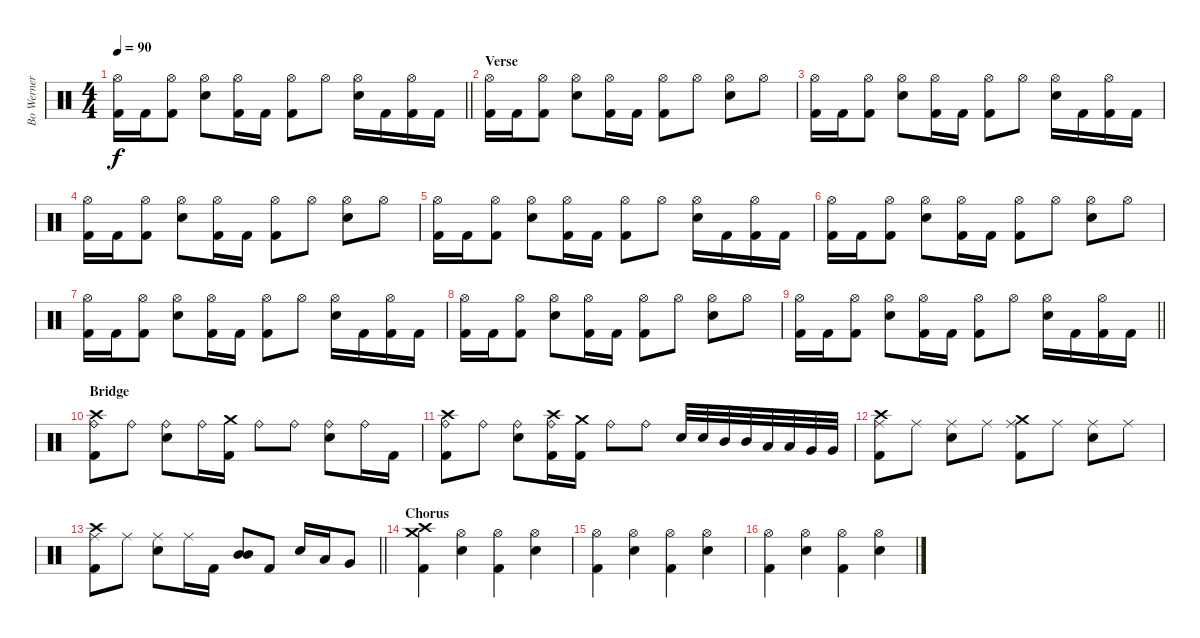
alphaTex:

\track ("Bo Werner" "Bo Werner") {instrument percussion}
\staff {score}
\articulation defaults
\ts (4 4)
\tempo 90
\clef neutral
\barLineRight lightlight
\ks c
("Hi-Hat (open)" "Kick (hit) 2").16{dy f} "Kick (hit) 2".16 ("Hi-Hat (open)" "Kick (hit) 2").8 ("Hi-Hat (open)" "Snare (hit) 2").8 ("Hi-Hat (open)" "Kick (hit) 2").16 "Kick (hit) 2".16 ("Hi-Hat (open)" "Kick (hit) 2").8 "Hi-Hat (open)".8 ("Hi-Hat (open)" "Snare (hit) 2").16 "Kick (hit) 2".16 ("Hi-Hat (open)" "Kick (hit) 2").16 "Kick (hit) 2".16 |
\section ("" "Verse")
("Hi-Hat (open)" "Kick (hit) 2").16 "Kick (hit) 2".16 ("Hi-Hat (open)" "Kick (hit) 2").8 ("Hi-Hat (open)" "Snare (hit) 2").8 ("Hi-Hat (open)" "Kick (hit) 2").16 "Kick (hit) 2".16 ("Hi-Hat (open)" "Kick (hit) 2").8 "Hi-Hat (open)".8 ("Hi-Hat (open)" "Snare (hit) 2").8 "Hi-Hat (open)".8 |
("Hi-Hat (open)" "Kick (hit) 2").16 "Kick (hit) 2".16 ("Hi-Hat (open)" "Kick (hit) 2").8 ("Hi-Hat (open)" "Snare (hit) 2").8 ("Hi-Hat (open)" "Kick (hit) 2").16 "Kick (hit) 2".16 ("Hi-Hat (open)" "Kick (hit) 2").8 "Hi-Hat (open)".8 ("Hi-Hat (open)" "Snare (hit) 2").16 "Kick (hit) 2".16 ("Hi-Hat (open)" "Kick (hit) 2").16 "Kick (hit) 2".16 |
("Hi-Hat (open)" "Kick (hit) 2").16 "Kick (hit) 2".16 ("Hi-Hat (open)" "Kick (hit) 2").8 ("Hi-Hat (open)" "Snare (hit) 2").8 ("Hi-Hat (open)" "Kick (hit) 2").16 "Kick (hit) 2".16 ("Hi-Hat (open)" "Kick (hit) 2").8 "Hi-Hat (open)".8 ("Hi-Hat (open)" "Snare (hit) 2").8 "Hi-Hat (open)".8 |
("Hi-Hat (open)" "Kick (hit) 2").16 "Kick (hit) 2".16 ("Hi-Hat (open)" "Kick (hit) 2").8 ("Hi-Hat (open)" "Snare (hit) 2").8 ("Hi-Hat (open)" "Kick (hit) 2").16 "Kick (hit) 2".16 ("Hi-Hat (open)" "Kick (hit) 2").8 "Hi-Hat (open)".8 ("Hi-Hat (open)" "Snare (hit) 2").16 "Kick (hit) 2".16 ("Hi-Hat (open)" "Kick (hit) 2").16 "Kick (hit) 2".16 |
("Hi-Hat (open)" "Kick (hit) 2").16 "Kick (hit) 2".16 ("Hi-Hat (open)" "Kick (hit) 2").8 ("Hi-Hat (open)" "Snare (hit) 2").8 ("Hi-Hat (open)" "Kick (hit) 2").16 "Kick (hit) 2".16 ("Hi-Hat (open)" "Kick (hit) 2").8 "Hi-Hat (open)".8 ("Hi-Hat (open)" "Snare (hit) 2").8 "Hi-Hat (open)".8 |
("Hi-Hat (open)" "Kick (hit) 2").16 "Kick (hit) 2".16 ("Hi-Hat (open)" "Kick (hit) 2").8 ("Hi-Hat (open)" "Snare (hit) 2").8 ("Hi-Hat (open)" "Kick (hit) 2").16 "Kick (hit) 2".16 ("Hi-Hat (open)" "Kick (hit) 2").8 "Hi-Hat (open)".8 ("Hi-Hat (open)" "Snare (hit) 2").16 "Kick (hit) 2".16 ("Hi-Hat (open)" "Kick (hit) 2").16 "Kick (hit) 2".16 |
("Hi-Hat (open)" "Kick (hit) 2").16 "Kick (hit) 2".16 ("Hi-Hat (open)" "Kick (hit) 2").8 ("Hi-Hat (open)" "Snare (hit) 2").8 ("Hi-Hat (open)" "Kick (hit) 2").16 "Kick (hit) 2".16 ("Hi-Hat (open)" "Kick (hit) 2").8 "Hi-Hat (open)".8 ("Hi-Hat (open)" "Snare (hit) 2").8 "Hi-Hat (open)".8 |
\barLineRight lightlight
("Hi-Hat (open)" "Kick (hit) 2").16 "Kick (hit) 2".16 ("Hi-Hat (open)" "Kick (hit) 2").8 ("Hi-Hat (open)" "Snare (hit) 2").8 ("Hi-Hat (open)" "Kick (hit) 2").16 "Kick (hit) 2".16 ("Hi-Hat (open)" "Kick (hit) 2").8 "Hi-Hat (open)".8 ("Hi-Hat (open)" "Snare (hit) 2").16 "Kick (hit) 2".16 ("Hi-Hat (open)" "Kick (hit) 2").16 "Kick (hit) 2".16 |
\section ("" "Bridge")
("Crash high (hit)" "Ride (bell)" "Kick (hit) 2").8 "Ride (bell)".8 ("Ride (bell)" "Snare (hit) 2").8 "Ride (bell)".16 ("Crash medium (hit)" "Kick (hit) 2").16 "Ride (bell)".8 "Ride (bell)".8 ("Ride (bell)" "Snare (hit) 2").8 "Ride (bell)".16 "Kick (hit) 2".16 |
("Crash high (hit)" "Ride (bell)" "Kick (hit) 2").8 "Ride (bell)".8 ("Ride (bell)" "Snare (hit) 2").8 ("Crash high (hit)" "Ride (bell)" "Kick (hit) 2").16 ("Crash medium (hit)" "Kick (hit) 2").16 "Ride (bell)".8 "Ride (bell)".8 "Snare (hit) 2".32 "Snare (hit) 2".32 "Mid Tom (hit)".32 "Mid Tom (hit)".32 "Low Tom (hit)".32 "Low Tom (hit)".32 "Very Low Tom (hit)".32 "Very Low Tom (hit)".32 |
("Crash high (hit)" "Ride (middle)" "Kick (hit) 2").8 "Ride (middle)".8 ("Ride (middle)" "Snare (hit) 2").8 "Ride (middle)".8 ("Crash medium (hit)" "Ride (middle)" "Kick (hit) 2").8 "Ride (middle)".8 ("Ride (middle)" "Snare (hit) 2").8 "Ride (middle)".8 |
\barLineRight lightlight
("Crash high (hit)" "Ride (middle)" "Kick (hit) 2").8 "Ride (middle)".8 ("Ride (middle)" "Snare (hit) 2").8 "Ride (middle)".16 "Kick (hit) 2".16 ("Mid Tom (hit)" "Mid Tom (hit)").8 "Kick (hit) 2".8 "Snare (hit) 2".16 "Low Tom (hit)".16 "Very Low Tom (hit)".8 |
\section ("" "Chorus")
("Crash medium (hit)" "Crash high (hit)" "Kick (hit) 2").4 ("Hi-Hat (open)" "Snare (hit) 2").4 ("Hi-Hat (open)" "Kick (hit) 2").4 ("Hi-Hat (open)" "Snare (hit) 2").4 |
("Hi-Hat (open)" "Kick (hit) 2").4 ("Hi-Hat (open)" "Snare (hit) 2").4 ("Hi-Hat (open)" "Kick (hit) 2").4 ("Hi-Hat (open)" "Snare (hit) 2").4 |
("Hi-Hat (open)" "Kick (hit) 2").4 ("Hi-Hat (open)" "Snare (hit) 2").4 ("Hi-Hat (open)" "Kick (hit) 2").4 ("Hi-Hat (open)" "Snare (hit) 2").4
